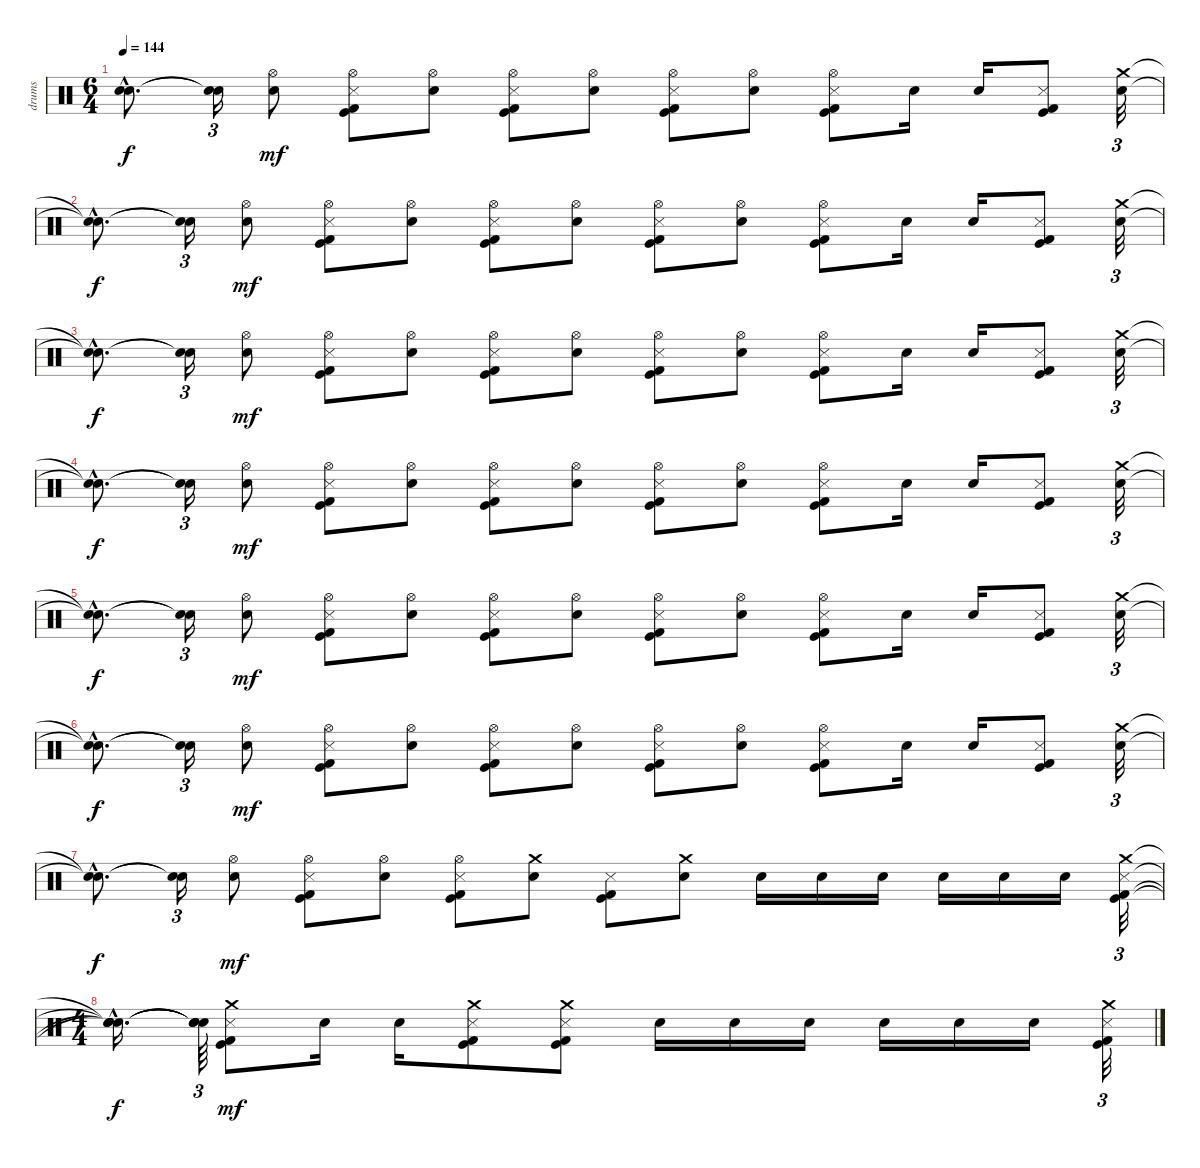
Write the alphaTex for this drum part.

\track ("drums" "drums") {instrument percussion}
\staff {score}
\articulation defaults
\ts (6 4)
\tempo 144
\clef neutral
\ks c
("Snare (hit)"{hac t} "Snare (hit)"{hac t}).8{d dy f} ("Snare (hit)"{t} "Snare (hit)"{t}).16{tu (3 2)} ("Snare (hit) 2" "Hi-Hat (open)").8{dy mf} ("Hi-Hat (open)" "Metronome (hit)" "Kick (hit)" "Kick (hit) 2").8 ("Snare (hit) 2" "Hi-Hat (open)").8 ("Hi-Hat (open)" "Metronome (hit)" "Kick (hit)" "Kick (hit) 2").8 ("Snare (hit) 2" "Hi-Hat (open)").8 ("Hi-Hat (open)" "Metronome (hit)" "Kick (hit)" "Kick (hit) 2").8 ("Snare (hit) 2" "Hi-Hat (open)").8 ("Hi-Hat (open)" "Metronome (hit)" "Kick (hit)" "Kick (hit) 2").8 "Snare (hit) 2".16 "Snare (hit) 2".16 ("Metronome (hit)" "Kick (hit)" "Kick (hit) 2").8 ("Snare (hit) 2" "Crash medium (hit)").32{tu (3 2)} |
("Snare (hit)"{hac t} "Snare (hit)"{hac t}).8{d dy f} ("Snare (hit)"{t} "Snare (hit)"{t}).16{tu (3 2)} ("Snare (hit) 2" "Hi-Hat (open)").8{dy mf} ("Hi-Hat (open)" "Metronome (hit)" "Kick (hit)" "Kick (hit) 2").8 ("Snare (hit) 2" "Hi-Hat (open)").8 ("Hi-Hat (open)" "Metronome (hit)" "Kick (hit)" "Kick (hit) 2").8 ("Snare (hit) 2" "Hi-Hat (open)").8 ("Hi-Hat (open)" "Metronome (hit)" "Kick (hit)" "Kick (hit) 2").8 ("Snare (hit) 2" "Hi-Hat (open)").8 ("Hi-Hat (open)" "Metronome (hit)" "Kick (hit)" "Kick (hit) 2").8 "Snare (hit) 2".16 "Snare (hit) 2".16 ("Metronome (hit)" "Kick (hit)" "Kick (hit) 2").8 ("Snare (hit) 2" "Crash medium (hit)").32{tu (3 2)} |
("Snare (hit)"{hac t} "Snare (hit)"{hac t}).8{d dy f} ("Snare (hit)"{t} "Snare (hit)"{t}).16{tu (3 2)} ("Snare (hit) 2" "Hi-Hat (open)").8{dy mf} ("Hi-Hat (open)" "Metronome (hit)" "Kick (hit)" "Kick (hit) 2").8 ("Snare (hit) 2" "Hi-Hat (open)").8 ("Hi-Hat (open)" "Metronome (hit)" "Kick (hit)" "Kick (hit) 2").8 ("Snare (hit) 2" "Hi-Hat (open)").8 ("Hi-Hat (open)" "Metronome (hit)" "Kick (hit)" "Kick (hit) 2").8 ("Snare (hit) 2" "Hi-Hat (open)").8 ("Hi-Hat (open)" "Metronome (hit)" "Kick (hit)" "Kick (hit) 2").8 "Snare (hit) 2".16 "Snare (hit) 2".16 ("Metronome (hit)" "Kick (hit)" "Kick (hit) 2").8 ("Snare (hit) 2" "Crash medium (hit)").32{tu (3 2)} |
("Snare (hit)"{hac t} "Snare (hit)"{hac t}).8{d dy f} ("Snare (hit)"{t} "Snare (hit)"{t}).16{tu (3 2)} ("Snare (hit) 2" "Hi-Hat (open)").8{dy mf} ("Hi-Hat (open)" "Metronome (hit)" "Kick (hit)" "Kick (hit) 2").8 ("Snare (hit) 2" "Hi-Hat (open)").8 ("Hi-Hat (open)" "Metronome (hit)" "Kick (hit)" "Kick (hit) 2").8 ("Snare (hit) 2" "Hi-Hat (open)").8 ("Hi-Hat (open)" "Metronome (hit)" "Kick (hit)" "Kick (hit) 2").8 ("Snare (hit) 2" "Hi-Hat (open)").8 ("Hi-Hat (open)" "Metronome (hit)" "Kick (hit)" "Kick (hit) 2").8 "Snare (hit) 2".16 "Snare (hit) 2".16 ("Metronome (hit)" "Kick (hit)" "Kick (hit) 2").8 ("Snare (hit) 2" "Crash medium (hit)").32{tu (3 2)} |
("Snare (hit)"{hac t} "Snare (hit)"{hac t}).8{d dy f} ("Snare (hit)"{t} "Snare (hit)"{t}).16{tu (3 2)} ("Snare (hit) 2" "Hi-Hat (open)").8{dy mf} ("Hi-Hat (open)" "Metronome (hit)" "Kick (hit)" "Kick (hit) 2").8 ("Snare (hit) 2" "Hi-Hat (open)").8 ("Hi-Hat (open)" "Metronome (hit)" "Kick (hit)" "Kick (hit) 2").8 ("Snare (hit) 2" "Hi-Hat (open)").8 ("Hi-Hat (open)" "Metronome (hit)" "Kick (hit)" "Kick (hit) 2").8 ("Snare (hit) 2" "Hi-Hat (open)").8 ("Hi-Hat (open)" "Metronome (hit)" "Kick (hit)" "Kick (hit) 2").8 "Snare (hit) 2".16 "Snare (hit) 2".16 ("Metronome (hit)" "Kick (hit)" "Kick (hit) 2").8 ("Snare (hit) 2" "Crash medium (hit)").32{tu (3 2)} |
("Snare (hit)"{hac t} "Snare (hit)"{hac t}).8{d dy f} ("Snare (hit)"{t} "Snare (hit)"{t}).16{tu (3 2)} ("Snare (hit) 2" "Hi-Hat (open)").8{dy mf} ("Hi-Hat (open)" "Metronome (hit)" "Kick (hit)" "Kick (hit) 2").8 ("Snare (hit) 2" "Hi-Hat (open)").8 ("Hi-Hat (open)" "Metronome (hit)" "Kick (hit)" "Kick (hit) 2").8 ("Snare (hit) 2" "Hi-Hat (open)").8 ("Hi-Hat (open)" "Metronome (hit)" "Kick (hit)" "Kick (hit) 2").8 ("Snare (hit) 2" "Hi-Hat (open)").8 ("Hi-Hat (open)" "Metronome (hit)" "Kick (hit)" "Kick (hit) 2").8 "Snare (hit) 2".16 "Snare (hit) 2".16 ("Metronome (hit)" "Kick (hit)" "Kick (hit) 2").8 ("Snare (hit) 2" "Crash medium (hit)").32{tu (3 2)} |
("Snare (hit)"{hac t} "Snare (hit)"{hac t}).8{d dy f} ("Snare (hit)"{t} "Snare (hit)"{t}).16{tu (3 2)} ("Snare (hit) 2" "Hi-Hat (open)").8{dy mf} ("Hi-Hat (open)" "Metronome (hit)" "Kick (hit)" "Kick (hit) 2").8 ("Snare (hit) 2" "Hi-Hat (open)").8 ("Hi-Hat (open)" "Metronome (hit)" "Kick (hit)" "Kick (hit) 2").8 ("Snare (hit) 2" "Crash medium (hit)").8 ("Metronome (hit)" "Kick (hit)" "Kick (hit) 2").8 ("Snare (hit) 2" "Crash medium (hit)").8 "Snare (hit) 2".16 "Snare (hit) 2".16 "Snare (hit) 2".16 "Snare (hit) 2".16 "Snare (hit) 2".16 "Snare (hit) 2".16 ("Crash medium (hit)" "Metronome (hit)" "Kick (hit)" "Kick (hit) 2").32{tu (3 2)} |
\ts (4 4)
("Snare (hit)"{hac t} "Snare (hit)"{hac t} "Snare (hit)"{hac t} "Snare (hit)"{hac t}).16{d dy f} ("Snare (hit)"{t} "Snare (hit)"{t} "Snare (hit)"{t} "Snare (hit)"{t}).64{tu (3 2)} ("Crash medium (hit)" "Metronome (hit)" "Kick (hit)" "Kick (hit) 2").8{dy mf} "Snare (hit) 2".16 "Snare (hit) 2".16 ("Crash medium (hit)" "Metronome (hit)" "Kick (hit)" "Kick (hit) 2").8 ("Crash medium (hit)" "Metronome (hit)" "Kick (hit)" "Kick (hit) 2").8 "Snare (hit) 2".16 "Snare (hit) 2".16 "Snare (hit) 2".16 "Snare (hit) 2".16 "Snare (hit) 2".16 "Snare (hit) 2".16 ("Crash medium (hit)" "Metronome (hit)" "Kick (hit)" "Kick (hit) 2").32{tu (3 2)}
